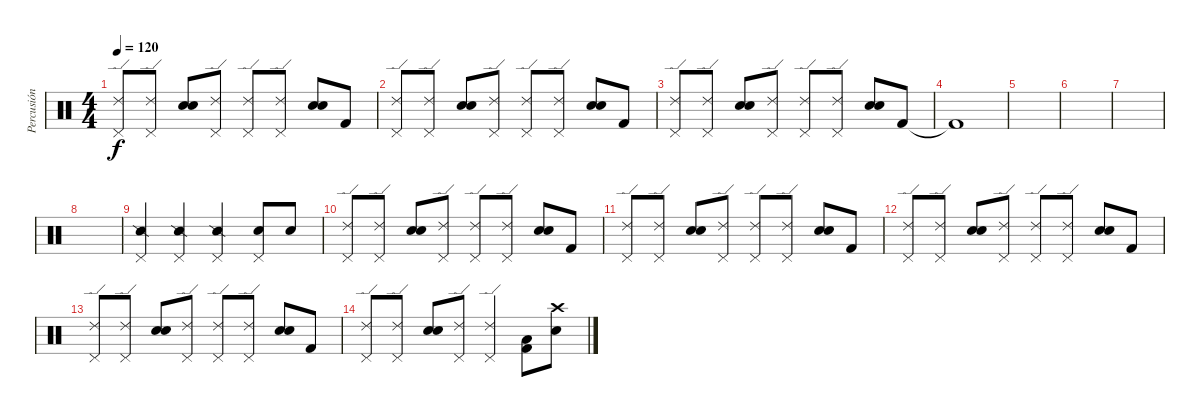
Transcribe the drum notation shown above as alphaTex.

\track ("Percusión" "Percusión") {instrument percussion}
\staff {score}
\articulation defaults
\ts (4 4)
\tempo 120
\clef neutral
\ks c
("Pedal Hi-Hat (hit)" "Ride (edge) 2").8{dy f} ("Pedal Hi-Hat (hit)" "Ride (edge) 2").8 ("Electric Snare (hit)" "Snare (hit) 2").8 ("Pedal Hi-Hat (hit)" "Ride (edge) 2").8 ("Pedal Hi-Hat (hit)" "Ride (edge) 2").8 ("Pedal Hi-Hat (hit)" "Ride (edge) 2").8 ("Snare (hit) 2" "Electric Snare (hit)").8 "Kick (hit) 2".8 |
("Pedal Hi-Hat (hit)" "Ride (edge) 2").8 ("Pedal Hi-Hat (hit)" "Ride (edge) 2").8 ("Electric Snare (hit)" "Snare (hit) 2").8 ("Pedal Hi-Hat (hit)" "Ride (edge) 2").8 ("Pedal Hi-Hat (hit)" "Ride (edge) 2").8 ("Pedal Hi-Hat (hit)" "Ride (edge) 2").8 ("Snare (hit) 2" "Electric Snare (hit)").8 "Kick (hit) 2".8 |
("Pedal Hi-Hat (hit)" "Ride (edge) 2").8 ("Pedal Hi-Hat (hit)" "Ride (edge) 2").8 ("Electric Snare (hit)" "Snare (hit) 2").8 ("Pedal Hi-Hat (hit)" "Ride (edge) 2").8 ("Pedal Hi-Hat (hit)" "Ride (edge) 2").8 ("Pedal Hi-Hat (hit)" "Ride (edge) 2").8 ("Snare (hit) 2" "Electric Snare (hit)").8 "Kick (hit) 2".8 |
"Kick (hit) 2"{t}.1 |
|
|
|
|
("Snare (side stick) 2" "Pedal Hi-Hat (hit)").4 ("Snare (side stick) 2" "Pedal Hi-Hat (hit)").4 ("Snare (side stick) 2" "Pedal Hi-Hat (hit)").4 ("Pedal Hi-Hat (hit)" "Electric Snare (hit)").8 "Snare (hit) 2".8 |
("Pedal Hi-Hat (hit)" "Ride (edge) 2").8 ("Pedal Hi-Hat (hit)" "Ride (edge) 2").8 ("Electric Snare (hit)" "Snare (hit) 2").8 ("Pedal Hi-Hat (hit)" "Ride (edge) 2").8 ("Pedal Hi-Hat (hit)" "Ride (edge) 2").8 ("Pedal Hi-Hat (hit)" "Ride (edge) 2").8 ("Snare (hit) 2" "Electric Snare (hit)").8 "Kick (hit) 2".8 |
("Pedal Hi-Hat (hit)" "Ride (edge) 2").8 ("Pedal Hi-Hat (hit)" "Ride (edge) 2").8 ("Electric Snare (hit)" "Snare (hit) 2").8 ("Pedal Hi-Hat (hit)" "Ride (edge) 2").8 ("Pedal Hi-Hat (hit)" "Ride (edge) 2").8 ("Pedal Hi-Hat (hit)" "Ride (edge) 2").8 ("Snare (hit) 2" "Electric Snare (hit)").8 "Kick (hit) 2".8 |
("Pedal Hi-Hat (hit)" "Ride (edge) 2").8 ("Pedal Hi-Hat (hit)" "Ride (edge) 2").8 ("Electric Snare (hit)" "Snare (hit) 2").8 ("Pedal Hi-Hat (hit)" "Ride (edge) 2").8 ("Pedal Hi-Hat (hit)" "Ride (edge) 2").8 ("Pedal Hi-Hat (hit)" "Ride (edge) 2").8 ("Snare (hit) 2" "Electric Snare (hit)").8 "Kick (hit) 2".8 |
("Pedal Hi-Hat (hit)" "Ride (edge) 2").8 ("Pedal Hi-Hat (hit)" "Ride (edge) 2").8 ("Electric Snare (hit)" "Snare (hit) 2").8 ("Pedal Hi-Hat (hit)" "Ride (edge) 2").8 ("Pedal Hi-Hat (hit)" "Ride (edge) 2").8 ("Pedal Hi-Hat (hit)" "Ride (edge) 2").8 ("Snare (hit) 2" "Electric Snare (hit)").8 "Kick (hit) 2".8 |
("Pedal Hi-Hat (hit)" "Ride (edge) 2").8 ("Pedal Hi-Hat (hit)" "Ride (edge) 2").8 ("Electric Snare (hit)" "Snare (hit) 2").8 ("Pedal Hi-Hat (hit)" "Ride (edge) 2").8 ("Pedal Hi-Hat (hit)" "Ride (edge) 2").4 ("Low Floor Tom (hit)" "Kick (hit) 2").8 ("Electric Snare (hit)" "Crash high (hit)").8
